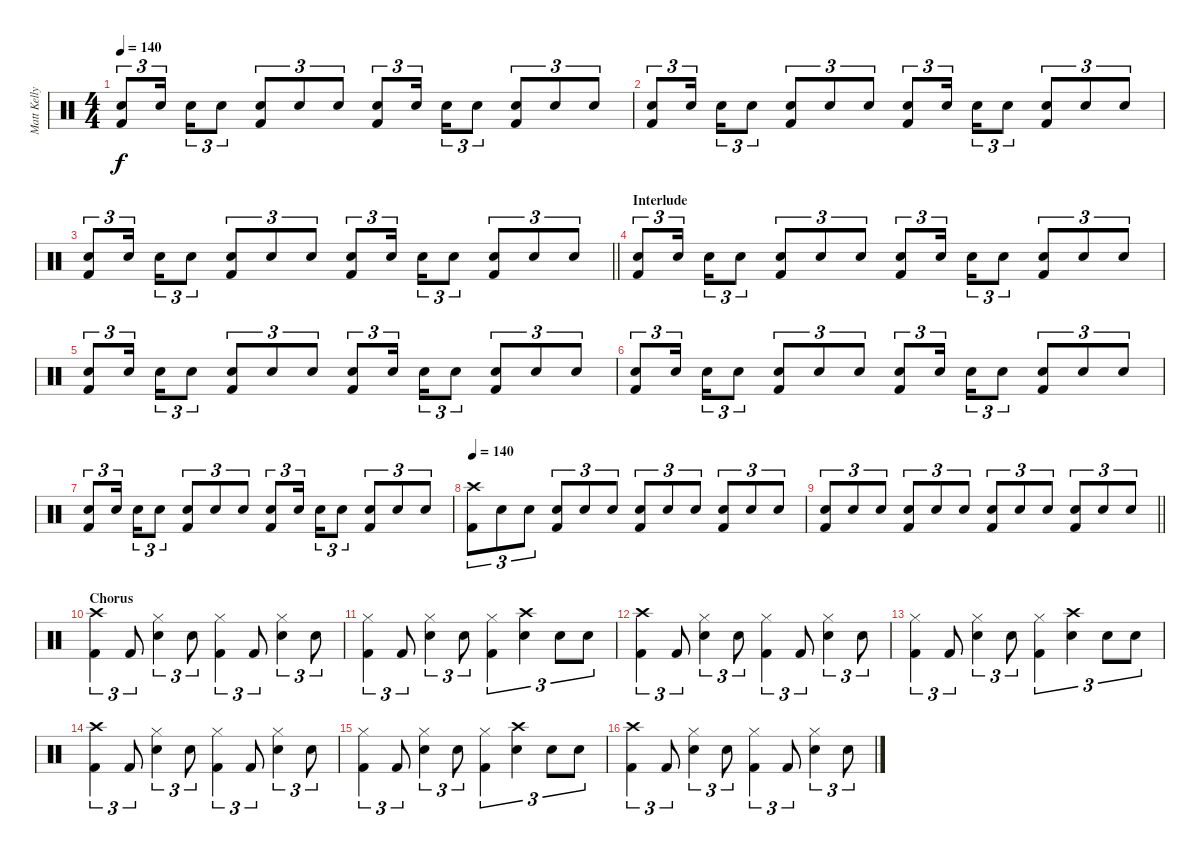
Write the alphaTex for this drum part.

\track ("Matt Kelly (Drums)" "Matt Kelly") {instrument percussion}
\staff {score}
\articulation defaults
\ts (4 4)
\tempo 140
\clef neutral
\ks c
("Electric Snare (hit)" "Kick (hit) 2").8{tu (3 2) dy f} "Electric Snare (hit)".16{tu (3 2) beam splitsecondary} "Electric Snare (hit)".16{tu (3 2)} "Electric Snare (hit)".8{tu (3 2)} ("Electric Snare (hit)" "Kick (hit) 2").8{tu (3 2)} "Electric Snare (hit)".8{tu (3 2)} "Electric Snare (hit)".8{tu (3 2)} ("Electric Snare (hit)" "Kick (hit) 2").8{tu (3 2)} "Electric Snare (hit)".16{tu (3 2) beam splitsecondary} "Electric Snare (hit)".16{tu (3 2)} "Electric Snare (hit)".8{tu (3 2)} ("Electric Snare (hit)" "Kick (hit) 2").8{tu (3 2)} "Electric Snare (hit)".8{tu (3 2)} "Electric Snare (hit)".8{tu (3 2)} |
("Electric Snare (hit)" "Kick (hit) 2").8{tu (3 2)} "Electric Snare (hit)".16{tu (3 2) beam splitsecondary} "Electric Snare (hit)".16{tu (3 2)} "Electric Snare (hit)".8{tu (3 2)} ("Electric Snare (hit)" "Kick (hit) 2").8{tu (3 2)} "Electric Snare (hit)".8{tu (3 2)} "Electric Snare (hit)".8{tu (3 2)} ("Electric Snare (hit)" "Kick (hit) 2").8{tu (3 2)} "Electric Snare (hit)".16{tu (3 2) beam splitsecondary} "Electric Snare (hit)".16{tu (3 2)} "Electric Snare (hit)".8{tu (3 2)} ("Electric Snare (hit)" "Kick (hit) 2").8{tu (3 2)} "Electric Snare (hit)".8{tu (3 2)} "Electric Snare (hit)".8{tu (3 2)} |
\barLineRight lightlight
("Electric Snare (hit)" "Kick (hit) 2").8{tu (3 2)} "Electric Snare (hit)".16{tu (3 2) beam splitsecondary} "Electric Snare (hit)".16{tu (3 2)} "Electric Snare (hit)".8{tu (3 2)} ("Electric Snare (hit)" "Kick (hit) 2").8{tu (3 2)} "Electric Snare (hit)".8{tu (3 2)} "Electric Snare (hit)".8{tu (3 2)} ("Electric Snare (hit)" "Kick (hit) 2").8{tu (3 2)} "Electric Snare (hit)".16{tu (3 2) beam splitsecondary} "Electric Snare (hit)".16{tu (3 2)} "Electric Snare (hit)".8{tu (3 2)} ("Electric Snare (hit)" "Kick (hit) 2").8{tu (3 2)} "Electric Snare (hit)".8{tu (3 2)} "Electric Snare (hit)".8{tu (3 2)} |
\section ("" "Interlude")
("Electric Snare (hit)" "Kick (hit) 2").8{tu (3 2)} "Electric Snare (hit)".16{tu (3 2) beam splitsecondary} "Electric Snare (hit)".16{tu (3 2)} "Electric Snare (hit)".8{tu (3 2)} ("Electric Snare (hit)" "Kick (hit) 2").8{tu (3 2)} "Electric Snare (hit)".8{tu (3 2)} "Electric Snare (hit)".8{tu (3 2)} ("Electric Snare (hit)" "Kick (hit) 2").8{tu (3 2)} "Electric Snare (hit)".16{tu (3 2) beam splitsecondary} "Electric Snare (hit)".16{tu (3 2)} "Electric Snare (hit)".8{tu (3 2)} ("Electric Snare (hit)" "Kick (hit) 2").8{tu (3 2)} "Electric Snare (hit)".8{tu (3 2)} "Electric Snare (hit)".8{tu (3 2)} |
("Electric Snare (hit)" "Kick (hit) 2").8{tu (3 2)} "Electric Snare (hit)".16{tu (3 2) beam splitsecondary} "Electric Snare (hit)".16{tu (3 2)} "Electric Snare (hit)".8{tu (3 2)} ("Electric Snare (hit)" "Kick (hit) 2").8{tu (3 2)} "Electric Snare (hit)".8{tu (3 2)} "Electric Snare (hit)".8{tu (3 2)} ("Electric Snare (hit)" "Kick (hit) 2").8{tu (3 2)} "Electric Snare (hit)".16{tu (3 2) beam splitsecondary} "Electric Snare (hit)".16{tu (3 2)} "Electric Snare (hit)".8{tu (3 2)} ("Electric Snare (hit)" "Kick (hit) 2").8{tu (3 2)} "Electric Snare (hit)".8{tu (3 2)} "Electric Snare (hit)".8{tu (3 2)} |
("Electric Snare (hit)" "Kick (hit) 2").8{tu (3 2)} "Electric Snare (hit)".16{tu (3 2) beam splitsecondary} "Electric Snare (hit)".16{tu (3 2)} "Electric Snare (hit)".8{tu (3 2)} ("Electric Snare (hit)" "Kick (hit) 2").8{tu (3 2)} "Electric Snare (hit)".8{tu (3 2)} "Electric Snare (hit)".8{tu (3 2)} ("Electric Snare (hit)" "Kick (hit) 2").8{tu (3 2)} "Electric Snare (hit)".16{tu (3 2) beam splitsecondary} "Electric Snare (hit)".16{tu (3 2)} "Electric Snare (hit)".8{tu (3 2)} ("Electric Snare (hit)" "Kick (hit) 2").8{tu (3 2)} "Electric Snare (hit)".8{tu (3 2)} "Electric Snare (hit)".8{tu (3 2)} |
("Electric Snare (hit)" "Kick (hit) 2").8{tu (3 2)} "Electric Snare (hit)".16{tu (3 2) beam splitsecondary} "Electric Snare (hit)".16{tu (3 2)} "Electric Snare (hit)".8{tu (3 2)} ("Electric Snare (hit)" "Kick (hit) 2").8{tu (3 2)} "Electric Snare (hit)".8{tu (3 2)} "Electric Snare (hit)".8{tu (3 2)} ("Electric Snare (hit)" "Kick (hit) 2").8{tu (3 2)} "Electric Snare (hit)".16{tu (3 2) beam splitsecondary} "Electric Snare (hit)".16{tu (3 2)} "Electric Snare (hit)".8{tu (3 2)} ("Electric Snare (hit)" "Kick (hit) 2").8{tu (3 2)} "Electric Snare (hit)".8{tu (3 2)} "Electric Snare (hit)".8{tu (3 2)} |
\tempo 140
("Crash high (hit)" "Kick (hit) 2").8{tu (3 2)} "Electric Snare (hit)".8{tu (3 2)} "Electric Snare (hit)".8{tu (3 2)} ("Electric Snare (hit)" "Kick (hit) 2").8{tu (3 2)} "Electric Snare (hit)".8{tu (3 2)} "Electric Snare (hit)".8{tu (3 2)} ("Electric Snare (hit)" "Kick (hit) 2").8{tu (3 2)} "Electric Snare (hit)".8{tu (3 2)} "Electric Snare (hit)".8{tu (3 2)} ("Electric Snare (hit)" "Kick (hit) 2").8{tu (3 2)} "Electric Snare (hit)".8{tu (3 2)} "Electric Snare (hit)".8{tu (3 2)} |
\barLineRight lightlight
("Electric Snare (hit)" "Kick (hit) 2").8{tu (3 2)} "Electric Snare (hit)".8{tu (3 2)} "Electric Snare (hit)".8{tu (3 2)} ("Electric Snare (hit)" "Kick (hit) 2").8{tu (3 2)} "Electric Snare (hit)".8{tu (3 2)} "Electric Snare (hit)".8{tu (3 2)} ("Electric Snare (hit)" "Kick (hit) 2").8{tu (3 2)} "Electric Snare (hit)".8{tu (3 2)} "Electric Snare (hit)".8{tu (3 2)} ("Electric Snare (hit)" "Kick (hit) 2").8{tu (3 2)} "Electric Snare (hit)".8{tu (3 2)} "Electric Snare (hit)".8{tu (3 2)} |
\section ("" "Chorus")
("Crash high (hit)" "Kick (hit) 2").4{tu (3 2)} "Kick (hit) 2".8{tu (3 2)} ("Hi-Hat (closed)" "Electric Snare (hit)").4{tu (3 2)} "Electric Snare (hit)".8{tu (3 2)} ("Hi-Hat (closed)" "Kick (hit) 2").4{tu (3 2)} "Kick (hit) 2".8{tu (3 2)} ("Hi-Hat (closed)" "Electric Snare (hit)").4{tu (3 2)} "Electric Snare (hit)".8{tu (3 2)} |
("Hi-Hat (closed)" "Kick (hit) 2").4{tu (3 2)} "Kick (hit) 2".8{tu (3 2)} ("Hi-Hat (closed)" "Electric Snare (hit)").4{tu (3 2)} "Electric Snare (hit)".8{tu (3 2)} ("Hi-Hat (closed)" "Kick (hit) 2").4{tu (3 2)} ("Crash high (hit)" "Electric Snare (hit)").4{tu (3 2)} "Electric Snare (hit)".8{tu (3 2)} "Electric Snare (hit)".8{tu (3 2)} |
("Crash high (hit)" "Kick (hit) 2").4{tu (3 2)} "Kick (hit) 2".8{tu (3 2)} ("Hi-Hat (closed)" "Electric Snare (hit)").4{tu (3 2)} "Electric Snare (hit)".8{tu (3 2)} ("Hi-Hat (closed)" "Kick (hit) 2").4{tu (3 2)} "Kick (hit) 2".8{tu (3 2)} ("Hi-Hat (closed)" "Electric Snare (hit)").4{tu (3 2)} "Electric Snare (hit)".8{tu (3 2)} |
("Hi-Hat (closed)" "Kick (hit) 2").4{tu (3 2)} "Kick (hit) 2".8{tu (3 2)} ("Hi-Hat (closed)" "Electric Snare (hit)").4{tu (3 2)} "Electric Snare (hit)".8{tu (3 2)} ("Hi-Hat (closed)" "Kick (hit) 2").4{tu (3 2)} ("Crash high (hit)" "Electric Snare (hit)").4{tu (3 2)} "Electric Snare (hit)".8{tu (3 2)} "Electric Snare (hit)".8{tu (3 2)} |
("Crash high (hit)" "Kick (hit) 2").4{tu (3 2)} "Kick (hit) 2".8{tu (3 2)} ("Hi-Hat (closed)" "Electric Snare (hit)").4{tu (3 2)} "Electric Snare (hit)".8{tu (3 2)} ("Hi-Hat (closed)" "Kick (hit) 2").4{tu (3 2)} "Kick (hit) 2".8{tu (3 2)} ("Hi-Hat (closed)" "Electric Snare (hit)").4{tu (3 2)} "Electric Snare (hit)".8{tu (3 2)} |
("Hi-Hat (closed)" "Kick (hit) 2").4{tu (3 2)} "Kick (hit) 2".8{tu (3 2)} ("Hi-Hat (closed)" "Electric Snare (hit)").4{tu (3 2)} "Electric Snare (hit)".8{tu (3 2)} ("Hi-Hat (closed)" "Kick (hit) 2").4{tu (3 2)} ("Crash high (hit)" "Electric Snare (hit)").4{tu (3 2)} "Electric Snare (hit)".8{tu (3 2)} "Electric Snare (hit)".8{tu (3 2)} |
("Crash high (hit)" "Kick (hit) 2").4{tu (3 2)} "Kick (hit) 2".8{tu (3 2)} ("Hi-Hat (closed)" "Electric Snare (hit)").4{tu (3 2)} "Electric Snare (hit)".8{tu (3 2)} ("Hi-Hat (closed)" "Kick (hit) 2").4{tu (3 2)} "Kick (hit) 2".8{tu (3 2)} ("Hi-Hat (closed)" "Electric Snare (hit)").4{tu (3 2)} "Electric Snare (hit)".8{tu (3 2)}
